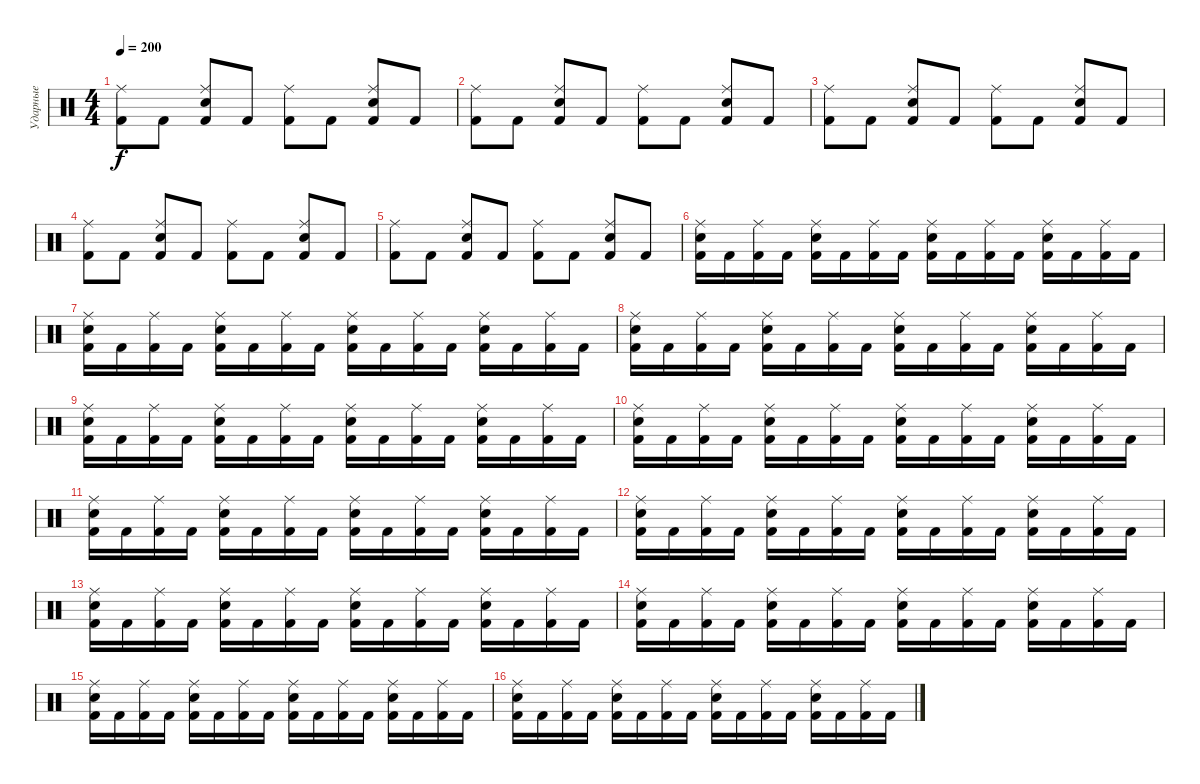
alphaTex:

\track ("Ударные" "Ударные") {instrument percussion}
\staff {score}
\articulation defaults
\ts (4 4)
\tempo 200
\clef neutral
\ks c
("Kick (hit) 2" "Ride (middle)").8{dy f} "Kick (hit) 2".8 ("Kick (hit) 2" "Electric Snare (hit)" "Ride (middle)").8 "Kick (hit) 2".8 ("Kick (hit) 2" "Ride (middle)").8 "Kick (hit) 2".8 ("Kick (hit) 2" "Electric Snare (hit)" "Ride (middle)").8 "Kick (hit) 2".8 |
("Kick (hit) 2" "Ride (middle)").8 "Kick (hit) 2".8 ("Kick (hit) 2" "Electric Snare (hit)" "Ride (middle)").8 "Kick (hit) 2".8 ("Kick (hit) 2" "Ride (middle)").8 "Kick (hit) 2".8 ("Kick (hit) 2" "Electric Snare (hit)" "Ride (middle)").8 "Kick (hit) 2".8 |
("Kick (hit) 2" "Ride (middle)").8 "Kick (hit) 2".8 ("Kick (hit) 2" "Electric Snare (hit)" "Ride (middle)").8 "Kick (hit) 2".8 ("Kick (hit) 2" "Ride (middle)").8 "Kick (hit) 2".8 ("Kick (hit) 2" "Electric Snare (hit)" "Ride (middle)").8 "Kick (hit) 2".8 |
("Kick (hit) 2" "Ride (middle)").8 "Kick (hit) 2".8 ("Kick (hit) 2" "Electric Snare (hit)" "Ride (middle)").8 "Kick (hit) 2".8 ("Kick (hit) 2" "Ride (middle)").8 "Kick (hit) 2".8 ("Kick (hit) 2" "Electric Snare (hit)" "Ride (middle)").8 "Kick (hit) 2".8 |
("Kick (hit) 2" "Ride (middle)").8 "Kick (hit) 2".8 ("Kick (hit) 2" "Electric Snare (hit)" "Ride (middle)").8 "Kick (hit) 2".8 ("Kick (hit) 2" "Ride (middle)").8 "Kick (hit) 2".8 ("Kick (hit) 2" "Electric Snare (hit)" "Ride (middle)").8 "Kick (hit) 2".8 |
("Kick (hit) 2" "Electric Snare (hit)" "Ride (middle)").16 "Kick (hit) 2".16 ("Kick (hit) 2" "Ride (middle)").16 "Kick (hit) 2".16 ("Kick (hit) 2" "Electric Snare (hit)" "Ride (middle)").16 "Kick (hit) 2".16 ("Kick (hit) 2" "Ride (middle)").16 "Kick (hit) 2".16 ("Kick (hit) 2" "Electric Snare (hit)" "Ride (middle)").16 "Kick (hit) 2".16 ("Kick (hit) 2" "Ride (middle)").16 "Kick (hit) 2".16 ("Kick (hit) 2" "Electric Snare (hit)" "Ride (middle)").16 "Kick (hit) 2".16 ("Kick (hit) 2" "Ride (middle)").16 "Kick (hit) 2".16 |
("Kick (hit) 2" "Electric Snare (hit)" "Ride (middle)").16 "Kick (hit) 2".16 ("Kick (hit) 2" "Ride (middle)").16 "Kick (hit) 2".16 ("Kick (hit) 2" "Electric Snare (hit)" "Ride (middle)").16 "Kick (hit) 2".16 ("Kick (hit) 2" "Ride (middle)").16 "Kick (hit) 2".16 ("Kick (hit) 2" "Electric Snare (hit)" "Ride (middle)").16 "Kick (hit) 2".16 ("Kick (hit) 2" "Ride (middle)").16 "Kick (hit) 2".16 ("Kick (hit) 2" "Electric Snare (hit)" "Ride (middle)").16 "Kick (hit) 2".16 ("Kick (hit) 2" "Ride (middle)").16 "Kick (hit) 2".16 |
("Kick (hit) 2" "Electric Snare (hit)" "Ride (middle)").16 "Kick (hit) 2".16 ("Kick (hit) 2" "Ride (middle)").16 "Kick (hit) 2".16 ("Kick (hit) 2" "Electric Snare (hit)" "Ride (middle)").16 "Kick (hit) 2".16 ("Kick (hit) 2" "Ride (middle)").16 "Kick (hit) 2".16 ("Kick (hit) 2" "Electric Snare (hit)" "Ride (middle)").16 "Kick (hit) 2".16 ("Kick (hit) 2" "Ride (middle)").16 "Kick (hit) 2".16 ("Kick (hit) 2" "Electric Snare (hit)" "Ride (middle)").16 "Kick (hit) 2".16 ("Kick (hit) 2" "Ride (middle)").16 "Kick (hit) 2".16 |
("Kick (hit) 2" "Electric Snare (hit)" "Ride (middle)").16 "Kick (hit) 2".16 ("Kick (hit) 2" "Ride (middle)").16 "Kick (hit) 2".16 ("Kick (hit) 2" "Electric Snare (hit)" "Ride (middle)").16 "Kick (hit) 2".16 ("Kick (hit) 2" "Ride (middle)").16 "Kick (hit) 2".16 ("Kick (hit) 2" "Electric Snare (hit)" "Ride (middle)").16 "Kick (hit) 2".16 ("Kick (hit) 2" "Ride (middle)").16 "Kick (hit) 2".16 ("Kick (hit) 2" "Electric Snare (hit)" "Ride (middle)").16 "Kick (hit) 2".16 ("Kick (hit) 2" "Ride (middle)").16 "Kick (hit) 2".16 |
("Kick (hit) 2" "Electric Snare (hit)" "Ride (middle)").16 "Kick (hit) 2".16 ("Kick (hit) 2" "Ride (middle)").16 "Kick (hit) 2".16 ("Kick (hit) 2" "Electric Snare (hit)" "Ride (middle)").16 "Kick (hit) 2".16 ("Kick (hit) 2" "Ride (middle)").16 "Kick (hit) 2".16 ("Kick (hit) 2" "Electric Snare (hit)" "Ride (middle)").16 "Kick (hit) 2".16 ("Kick (hit) 2" "Ride (middle)").16 "Kick (hit) 2".16 ("Kick (hit) 2" "Electric Snare (hit)" "Ride (middle)").16 "Kick (hit) 2".16 ("Kick (hit) 2" "Ride (middle)").16 "Kick (hit) 2".16 |
("Kick (hit) 2" "Electric Snare (hit)" "Ride (middle)").16 "Kick (hit) 2".16 ("Kick (hit) 2" "Ride (middle)").16 "Kick (hit) 2".16 ("Kick (hit) 2" "Electric Snare (hit)" "Ride (middle)").16 "Kick (hit) 2".16 ("Kick (hit) 2" "Ride (middle)").16 "Kick (hit) 2".16 ("Kick (hit) 2" "Electric Snare (hit)" "Ride (middle)").16 "Kick (hit) 2".16 ("Kick (hit) 2" "Ride (middle)").16 "Kick (hit) 2".16 ("Kick (hit) 2" "Electric Snare (hit)" "Ride (middle)").16 "Kick (hit) 2".16 ("Kick (hit) 2" "Ride (middle)").16 "Kick (hit) 2".16 |
("Kick (hit) 2" "Electric Snare (hit)" "Ride (middle)").16 "Kick (hit) 2".16 ("Kick (hit) 2" "Ride (middle)").16 "Kick (hit) 2".16 ("Kick (hit) 2" "Electric Snare (hit)" "Ride (middle)").16 "Kick (hit) 2".16 ("Kick (hit) 2" "Ride (middle)").16 "Kick (hit) 2".16 ("Kick (hit) 2" "Electric Snare (hit)" "Ride (middle)").16 "Kick (hit) 2".16 ("Kick (hit) 2" "Ride (middle)").16 "Kick (hit) 2".16 ("Kick (hit) 2" "Electric Snare (hit)" "Ride (middle)").16 "Kick (hit) 2".16 ("Kick (hit) 2" "Ride (middle)").16 "Kick (hit) 2".16 |
("Kick (hit) 2" "Electric Snare (hit)" "Ride (middle)").16 "Kick (hit) 2".16 ("Kick (hit) 2" "Ride (middle)").16 "Kick (hit) 2".16 ("Kick (hit) 2" "Electric Snare (hit)" "Ride (middle)").16 "Kick (hit) 2".16 ("Kick (hit) 2" "Ride (middle)").16 "Kick (hit) 2".16 ("Kick (hit) 2" "Electric Snare (hit)" "Ride (middle)").16 "Kick (hit) 2".16 ("Kick (hit) 2" "Ride (middle)").16 "Kick (hit) 2".16 ("Kick (hit) 2" "Electric Snare (hit)" "Ride (middle)").16 "Kick (hit) 2".16 ("Kick (hit) 2" "Ride (middle)").16 "Kick (hit) 2".16 |
("Kick (hit) 2" "Electric Snare (hit)" "Ride (middle)").16 "Kick (hit) 2".16 ("Kick (hit) 2" "Ride (middle)").16 "Kick (hit) 2".16 ("Kick (hit) 2" "Electric Snare (hit)" "Ride (middle)").16 "Kick (hit) 2".16 ("Kick (hit) 2" "Ride (middle)").16 "Kick (hit) 2".16 ("Kick (hit) 2" "Electric Snare (hit)" "Ride (middle)").16 "Kick (hit) 2".16 ("Kick (hit) 2" "Ride (middle)").16 "Kick (hit) 2".16 ("Kick (hit) 2" "Electric Snare (hit)" "Ride (middle)").16 "Kick (hit) 2".16 ("Kick (hit) 2" "Ride (middle)").16 "Kick (hit) 2".16 |
("Kick (hit) 2" "Electric Snare (hit)" "Ride (middle)").16 "Kick (hit) 2".16 ("Kick (hit) 2" "Ride (middle)").16 "Kick (hit) 2".16 ("Kick (hit) 2" "Electric Snare (hit)" "Ride (middle)").16 "Kick (hit) 2".16 ("Kick (hit) 2" "Ride (middle)").16 "Kick (hit) 2".16 ("Kick (hit) 2" "Electric Snare (hit)" "Ride (middle)").16 "Kick (hit) 2".16 ("Kick (hit) 2" "Ride (middle)").16 "Kick (hit) 2".16 ("Kick (hit) 2" "Electric Snare (hit)" "Ride (middle)").16 "Kick (hit) 2".16 ("Kick (hit) 2" "Ride (middle)").16 "Kick (hit) 2".16 |
("Kick (hit) 2" "Electric Snare (hit)" "Ride (middle)").16 "Kick (hit) 2".16 ("Kick (hit) 2" "Ride (middle)").16 "Kick (hit) 2".16 ("Kick (hit) 2" "Electric Snare (hit)" "Ride (middle)").16 "Kick (hit) 2".16 ("Kick (hit) 2" "Ride (middle)").16 "Kick (hit) 2".16 ("Kick (hit) 2" "Electric Snare (hit)" "Ride (middle)").16 "Kick (hit) 2".16 ("Kick (hit) 2" "Ride (middle)").16 "Kick (hit) 2".16 ("Kick (hit) 2" "Electric Snare (hit)" "Ride (middle)").16 "Kick (hit) 2".16 ("Kick (hit) 2" "Ride (middle)").16 "Kick (hit) 2".16
